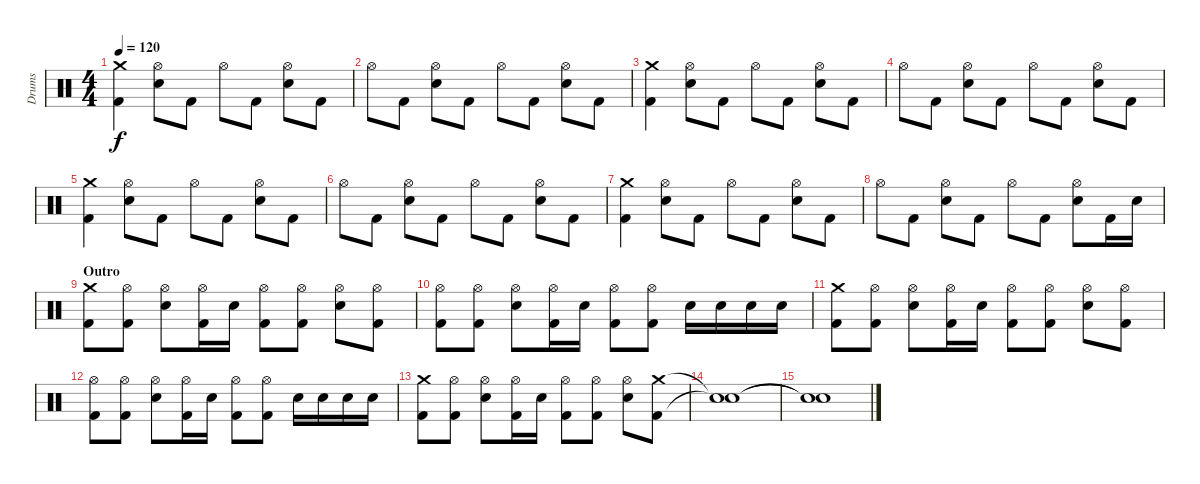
\track ("Drums" "Drums") {instrument percussion}
\staff {score}
\articulation defaults
\ts (4 4)
\tempo 120
\clef neutral
\ks c
("Crash medium (hit)" "Kick (hit) 2").4{dy f} ("Hi-Hat (open)" "Electric Snare (hit)").8 "Kick (hit) 2".8 "Hi-Hat (open)".8 "Kick (hit) 2".8 ("Hi-Hat (open)" "Electric Snare (hit)").8 "Kick (hit) 2".8 |
"Hi-Hat (open)".8 "Kick (hit) 2".8 ("Hi-Hat (open)" "Electric Snare (hit)").8 "Kick (hit) 2".8 "Hi-Hat (open)".8 "Kick (hit) 2".8 ("Hi-Hat (open)" "Electric Snare (hit)").8 "Kick (hit) 2".8 |
("Crash medium (hit)" "Kick (hit) 2").4 ("Hi-Hat (open)" "Electric Snare (hit)").8 "Kick (hit) 2".8 "Hi-Hat (open)".8 "Kick (hit) 2".8 ("Hi-Hat (open)" "Electric Snare (hit)").8 "Kick (hit) 2".8 |
"Hi-Hat (open)".8 "Kick (hit) 2".8 ("Hi-Hat (open)" "Electric Snare (hit)").8 "Kick (hit) 2".8 "Hi-Hat (open)".8 "Kick (hit) 2".8 ("Hi-Hat (open)" "Electric Snare (hit)").8 "Kick (hit) 2".8 |
("Crash medium (hit)" "Kick (hit) 2").4 ("Hi-Hat (open)" "Electric Snare (hit)").8 "Kick (hit) 2".8 "Hi-Hat (open)".8 "Kick (hit) 2".8 ("Hi-Hat (open)" "Electric Snare (hit)").8 "Kick (hit) 2".8 |
"Hi-Hat (open)".8 "Kick (hit) 2".8 ("Hi-Hat (open)" "Electric Snare (hit)").8 "Kick (hit) 2".8 "Hi-Hat (open)".8 "Kick (hit) 2".8 ("Hi-Hat (open)" "Electric Snare (hit)").8 "Kick (hit) 2".8 |
("Crash medium (hit)" "Kick (hit) 2").4 ("Hi-Hat (open)" "Electric Snare (hit)").8 "Kick (hit) 2".8 "Hi-Hat (open)".8 "Kick (hit) 2".8 ("Hi-Hat (open)" "Electric Snare (hit)").8 "Kick (hit) 2".8 |
"Hi-Hat (open)".8 "Kick (hit) 2".8 ("Hi-Hat (open)" "Electric Snare (hit)").8 "Kick (hit) 2".8 "Hi-Hat (open)".8 "Kick (hit) 2".8 ("Hi-Hat (open)" "Electric Snare (hit)").8 "Kick (hit) 2".16 "Electric Snare (hit)".16 |
\section ("" "Outro")
("Crash medium (hit)" "Kick (hit) 2").8 ("Hi-Hat (open)" "Kick (hit) 2").8 ("Hi-Hat (open)" "Electric Snare (hit)").8 ("Hi-Hat (open)" "Kick (hit) 2").16 "Electric Snare (hit)".16 ("Hi-Hat (open)" "Kick (hit) 2").8 ("Hi-Hat (open)" "Kick (hit) 2").8 ("Hi-Hat (open)" "Electric Snare (hit)").8 ("Hi-Hat (open)" "Kick (hit) 2").8 |
("Hi-Hat (open)" "Kick (hit) 2").8 ("Hi-Hat (open)" "Kick (hit) 2").8 ("Hi-Hat (open)" "Electric Snare (hit)").8 ("Hi-Hat (open)" "Kick (hit) 2").16 "Electric Snare (hit)".16 ("Hi-Hat (open)" "Kick (hit) 2").8 ("Hi-Hat (open)" "Kick (hit) 2").8 "Electric Snare (hit)".16 "Electric Snare (hit)".16 "Electric Snare (hit)".16 "Electric Snare (hit)".16 |
("Crash medium (hit)" "Kick (hit) 2").8 ("Hi-Hat (open)" "Kick (hit) 2").8 ("Hi-Hat (open)" "Electric Snare (hit)").8 ("Hi-Hat (open)" "Kick (hit) 2").16 "Electric Snare (hit)".16 ("Hi-Hat (open)" "Kick (hit) 2").8 ("Hi-Hat (open)" "Kick (hit) 2").8 ("Hi-Hat (open)" "Electric Snare (hit)").8 ("Hi-Hat (open)" "Kick (hit) 2").8 |
("Hi-Hat (open)" "Kick (hit) 2").8 ("Hi-Hat (open)" "Kick (hit) 2").8 ("Hi-Hat (open)" "Electric Snare (hit)").8 ("Hi-Hat (open)" "Kick (hit) 2").16 "Electric Snare (hit)".16 ("Hi-Hat (open)" "Kick (hit) 2").8 ("Hi-Hat (open)" "Kick (hit) 2").8 "Electric Snare (hit)".16 "Electric Snare (hit)".16 "Electric Snare (hit)".16 "Electric Snare (hit)".16 |
("Crash medium (hit)" "Kick (hit) 2").8 ("Hi-Hat (open)" "Kick (hit) 2").8 ("Hi-Hat (open)" "Electric Snare (hit)").8 ("Hi-Hat (open)" "Kick (hit) 2").16 "Electric Snare (hit)".16 ("Hi-Hat (open)" "Kick (hit) 2").8 ("Hi-Hat (open)" "Kick (hit) 2").8 ("Hi-Hat (open)" "Electric Snare (hit)").8 ("Crash medium (hit)" "Kick (hit) 2").8 |
("Snare (hit)"{t} "Snare (hit)"{t}).1 |
("Snare (hit)"{t} "Snare (hit)"{t}).1
